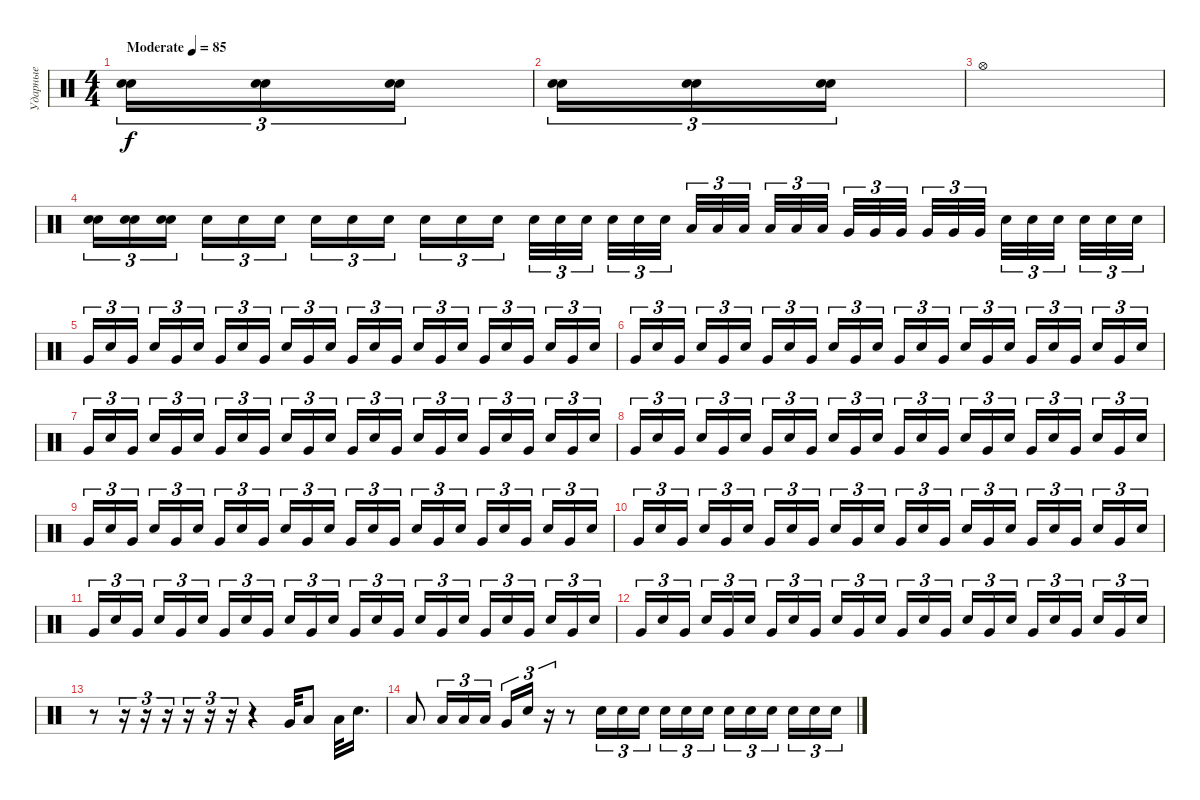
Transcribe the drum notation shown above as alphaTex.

\track ("Ударные" "Ударные") {instrument percussion}
\staff {score}
\articulation defaults
\ts (4 4)
\tempo (85 "Moderate")
\clef neutral
\ks c
("Electric Snare (hit)" "Snare (hit) 2").16{tu (3 2) dy f} ("Electric Snare (hit)" "Snare (hit) 2").16{tu (3 2)} ("Electric Snare (hit)" "Snare (hit) 2").16{tu (3 2)} |
("Electric Snare (hit)" "Snare (hit) 2").16{tu (3 2)} ("Electric Snare (hit)" "Snare (hit) 2").16{tu (3 2)} ("Electric Snare (hit)" "Snare (hit) 2").16{tu (3 2)} |
"Hi-Hat (open)".1 |
("Electric Snare (hit)" "Snare (hit) 2").16{tu (3 2)} ("Electric Snare (hit)" "Snare (hit) 2").16{tu (3 2)} ("Electric Snare (hit)" "Snare (hit) 2").16{tu (3 2) beam splitsecondary} "Snare (hit)".16{tu (3 2)} "Snare (hit)".16{tu (3 2)} "Snare (hit)".16{tu (3 2)} "Snare (hit)".16{tu (3 2)} "Snare (hit)".16{tu (3 2)} "Snare (hit)".16{tu (3 2) beam splitsecondary} "Snare (hit)".16{tu (3 2)} "Snare (hit)".16{tu (3 2)} "Snare (hit)".16{tu (3 2)} "Electric Snare (hit)".32{tu (3 2)} "Electric Snare (hit)".32{tu (3 2)} "Electric Snare (hit)".32{tu (3 2) beam splitsecondary} "Electric Snare (hit)".32{tu (3 2)} "Electric Snare (hit)".32{tu (3 2)} "Electric Snare (hit)".32{tu (3 2) beam splitsecondary} "Low Tom (hit)".32{tu (3 2)} "Low Tom (hit)".32{tu (3 2)} "Low Tom (hit)".32{tu (3 2) beam splitsecondary} "Low Tom (hit)".32{tu (3 2)} "Low Tom (hit)".32{tu (3 2)} "Low Tom (hit)".32{tu (3 2)} "Very Low Tom (hit)".32{tu (3 2)} "Very Low Tom (hit)".32{tu (3 2)} "Very Low Tom (hit)".32{tu (3 2) beam splitsecondary} "Very Low Tom (hit)".32{tu (3 2)} "Very Low Tom (hit)".32{tu (3 2)} "Very Low Tom (hit)".32{tu (3 2) beam splitsecondary} "Electric Snare (hit)".32{tu (3 2)} "Electric Snare (hit)".32{tu (3 2)} "Electric Snare (hit)".32{tu (3 2) beam splitsecondary} "Electric Snare (hit)".32{tu (3 2)} "Electric Snare (hit)".32{tu (3 2)} "Electric Snare (hit)".32{tu (3 2)} |
"Very Low Tom (hit)".16{tu (3 2)} "Electric Snare (hit)".16{tu (3 2)} "Very Low Tom (hit)".16{tu (3 2) beam splitsecondary} "Electric Snare (hit)".16{tu (3 2)} "Very Low Tom (hit)".16{tu (3 2)} "Electric Snare (hit)".16{tu (3 2)} "Very Low Tom (hit)".16{tu (3 2)} "Electric Snare (hit)".16{tu (3 2)} "Very Low Tom (hit)".16{tu (3 2) beam splitsecondary} "Electric Snare (hit)".16{tu (3 2)} "Very Low Tom (hit)".16{tu (3 2)} "Electric Snare (hit)".16{tu (3 2)} "Very Low Tom (hit)".16{tu (3 2)} "Electric Snare (hit)".16{tu (3 2)} "Very Low Tom (hit)".16{tu (3 2) beam splitsecondary} "Electric Snare (hit)".16{tu (3 2)} "Very Low Tom (hit)".16{tu (3 2)} "Electric Snare (hit)".16{tu (3 2)} "Very Low Tom (hit)".16{tu (3 2)} "Electric Snare (hit)".16{tu (3 2)} "Very Low Tom (hit)".16{tu (3 2) beam splitsecondary} "Electric Snare (hit)".16{tu (3 2)} "Very Low Tom (hit)".16{tu (3 2)} "Electric Snare (hit)".16{tu (3 2)} |
"Very Low Tom (hit)".16{tu (3 2)} "Electric Snare (hit)".16{tu (3 2)} "Very Low Tom (hit)".16{tu (3 2) beam splitsecondary} "Electric Snare (hit)".16{tu (3 2)} "Very Low Tom (hit)".16{tu (3 2)} "Electric Snare (hit)".16{tu (3 2)} "Very Low Tom (hit)".16{tu (3 2)} "Electric Snare (hit)".16{tu (3 2)} "Very Low Tom (hit)".16{tu (3 2) beam splitsecondary} "Electric Snare (hit)".16{tu (3 2)} "Very Low Tom (hit)".16{tu (3 2)} "Electric Snare (hit)".16{tu (3 2)} "Very Low Tom (hit)".16{tu (3 2)} "Electric Snare (hit)".16{tu (3 2)} "Very Low Tom (hit)".16{tu (3 2) beam splitsecondary} "Electric Snare (hit)".16{tu (3 2)} "Very Low Tom (hit)".16{tu (3 2)} "Electric Snare (hit)".16{tu (3 2)} "Very Low Tom (hit)".16{tu (3 2)} "Electric Snare (hit)".16{tu (3 2)} "Very Low Tom (hit)".16{tu (3 2) beam splitsecondary} "Electric Snare (hit)".16{tu (3 2)} "Very Low Tom (hit)".16{tu (3 2)} "Electric Snare (hit)".16{tu (3 2)} |
"Very Low Tom (hit)".16{tu (3 2)} "Electric Snare (hit)".16{tu (3 2)} "Very Low Tom (hit)".16{tu (3 2) beam splitsecondary} "Electric Snare (hit)".16{tu (3 2)} "Very Low Tom (hit)".16{tu (3 2)} "Electric Snare (hit)".16{tu (3 2)} "Very Low Tom (hit)".16{tu (3 2)} "Electric Snare (hit)".16{tu (3 2)} "Very Low Tom (hit)".16{tu (3 2) beam splitsecondary} "Electric Snare (hit)".16{tu (3 2)} "Very Low Tom (hit)".16{tu (3 2)} "Electric Snare (hit)".16{tu (3 2)} "Very Low Tom (hit)".16{tu (3 2)} "Electric Snare (hit)".16{tu (3 2)} "Very Low Tom (hit)".16{tu (3 2) beam splitsecondary} "Electric Snare (hit)".16{tu (3 2)} "Very Low Tom (hit)".16{tu (3 2)} "Electric Snare (hit)".16{tu (3 2)} "Very Low Tom (hit)".16{tu (3 2)} "Electric Snare (hit)".16{tu (3 2)} "Very Low Tom (hit)".16{tu (3 2) beam splitsecondary} "Electric Snare (hit)".16{tu (3 2)} "Very Low Tom (hit)".16{tu (3 2)} "Electric Snare (hit)".16{tu (3 2)} |
"Very Low Tom (hit)".16{tu (3 2)} "Electric Snare (hit)".16{tu (3 2)} "Very Low Tom (hit)".16{tu (3 2) beam splitsecondary} "Electric Snare (hit)".16{tu (3 2)} "Very Low Tom (hit)".16{tu (3 2)} "Electric Snare (hit)".16{tu (3 2)} "Very Low Tom (hit)".16{tu (3 2)} "Electric Snare (hit)".16{tu (3 2)} "Very Low Tom (hit)".16{tu (3 2) beam splitsecondary} "Electric Snare (hit)".16{tu (3 2)} "Very Low Tom (hit)".16{tu (3 2)} "Electric Snare (hit)".16{tu (3 2)} "Very Low Tom (hit)".16{tu (3 2)} "Electric Snare (hit)".16{tu (3 2)} "Very Low Tom (hit)".16{tu (3 2) beam splitsecondary} "Electric Snare (hit)".16{tu (3 2)} "Very Low Tom (hit)".16{tu (3 2)} "Electric Snare (hit)".16{tu (3 2)} "Very Low Tom (hit)".16{tu (3 2)} "Electric Snare (hit)".16{tu (3 2)} "Very Low Tom (hit)".16{tu (3 2) beam splitsecondary} "Electric Snare (hit)".16{tu (3 2)} "Very Low Tom (hit)".16{tu (3 2)} "Electric Snare (hit)".16{tu (3 2)} |
"Very Low Tom (hit)".16{tu (3 2)} "Electric Snare (hit)".16{tu (3 2)} "Very Low Tom (hit)".16{tu (3 2) beam splitsecondary} "Electric Snare (hit)".16{tu (3 2)} "Very Low Tom (hit)".16{tu (3 2)} "Electric Snare (hit)".16{tu (3 2)} "Very Low Tom (hit)".16{tu (3 2)} "Electric Snare (hit)".16{tu (3 2)} "Very Low Tom (hit)".16{tu (3 2) beam splitsecondary} "Electric Snare (hit)".16{tu (3 2)} "Very Low Tom (hit)".16{tu (3 2)} "Electric Snare (hit)".16{tu (3 2)} "Very Low Tom (hit)".16{tu (3 2)} "Electric Snare (hit)".16{tu (3 2)} "Very Low Tom (hit)".16{tu (3 2) beam splitsecondary} "Electric Snare (hit)".16{tu (3 2)} "Very Low Tom (hit)".16{tu (3 2)} "Electric Snare (hit)".16{tu (3 2)} "Very Low Tom (hit)".16{tu (3 2)} "Electric Snare (hit)".16{tu (3 2)} "Very Low Tom (hit)".16{tu (3 2) beam splitsecondary} "Electric Snare (hit)".16{tu (3 2)} "Very Low Tom (hit)".16{tu (3 2)} "Electric Snare (hit)".16{tu (3 2)} |
"Very Low Tom (hit)".16{tu (3 2)} "Electric Snare (hit)".16{tu (3 2)} "Very Low Tom (hit)".16{tu (3 2) beam splitsecondary} "Electric Snare (hit)".16{tu (3 2)} "Very Low Tom (hit)".16{tu (3 2)} "Electric Snare (hit)".16{tu (3 2)} "Very Low Tom (hit)".16{tu (3 2)} "Electric Snare (hit)".16{tu (3 2)} "Very Low Tom (hit)".16{tu (3 2) beam splitsecondary} "Electric Snare (hit)".16{tu (3 2)} "Very Low Tom (hit)".16{tu (3 2)} "Electric Snare (hit)".16{tu (3 2)} "Very Low Tom (hit)".16{tu (3 2)} "Electric Snare (hit)".16{tu (3 2)} "Very Low Tom (hit)".16{tu (3 2) beam splitsecondary} "Electric Snare (hit)".16{tu (3 2)} "Very Low Tom (hit)".16{tu (3 2)} "Electric Snare (hit)".16{tu (3 2)} "Very Low Tom (hit)".16{tu (3 2)} "Electric Snare (hit)".16{tu (3 2)} "Very Low Tom (hit)".16{tu (3 2) beam splitsecondary} "Electric Snare (hit)".16{tu (3 2)} "Very Low Tom (hit)".16{tu (3 2)} "Electric Snare (hit)".16{tu (3 2)} |
"Very Low Tom (hit)".16{tu (3 2)} "Electric Snare (hit)".16{tu (3 2)} "Very Low Tom (hit)".16{tu (3 2) beam splitsecondary} "Electric Snare (hit)".16{tu (3 2)} "Very Low Tom (hit)".16{tu (3 2)} "Electric Snare (hit)".16{tu (3 2)} "Very Low Tom (hit)".16{tu (3 2)} "Electric Snare (hit)".16{tu (3 2)} "Very Low Tom (hit)".16{tu (3 2) beam splitsecondary} "Electric Snare (hit)".16{tu (3 2)} "Very Low Tom (hit)".16{tu (3 2)} "Electric Snare (hit)".16{tu (3 2)} "Very Low Tom (hit)".16{tu (3 2)} "Electric Snare (hit)".16{tu (3 2)} "Very Low Tom (hit)".16{tu (3 2) beam splitsecondary} "Electric Snare (hit)".16{tu (3 2)} "Very Low Tom (hit)".16{tu (3 2)} "Electric Snare (hit)".16{tu (3 2)} "Very Low Tom (hit)".16{tu (3 2)} "Electric Snare (hit)".16{tu (3 2)} "Very Low Tom (hit)".16{tu (3 2) beam splitsecondary} "Electric Snare (hit)".16{tu (3 2)} "Very Low Tom (hit)".16{tu (3 2)} "Electric Snare (hit)".16{tu (3 2)} |
"Very Low Tom (hit)".16{tu (3 2)} "Electric Snare (hit)".16{tu (3 2)} "Very Low Tom (hit)".16{tu (3 2) beam splitsecondary} "Electric Snare (hit)".16{tu (3 2)} "Very Low Tom (hit)".16{tu (3 2)} "Electric Snare (hit)".16{tu (3 2)} "Very Low Tom (hit)".16{tu (3 2)} "Electric Snare (hit)".16{tu (3 2)} "Very Low Tom (hit)".16{tu (3 2) beam splitsecondary} "Electric Snare (hit)".16{tu (3 2)} "Very Low Tom (hit)".16{tu (3 2)} "Electric Snare (hit)".16{tu (3 2)} "Very Low Tom (hit)".16{tu (3 2)} "Electric Snare (hit)".16{tu (3 2)} "Very Low Tom (hit)".16{tu (3 2) beam splitsecondary} "Electric Snare (hit)".16{tu (3 2)} "Very Low Tom (hit)".16{tu (3 2)} "Electric Snare (hit)".16{tu (3 2)} "Very Low Tom (hit)".16{tu (3 2)} "Electric Snare (hit)".16{tu (3 2)} "Very Low Tom (hit)".16{tu (3 2) beam splitsecondary} "Electric Snare (hit)".16{tu (3 2)} "Very Low Tom (hit)".16{tu (3 2)} "Electric Snare (hit)".16{tu (3 2)} |
r.8 r.16{tu (3 2)} r.16{tu (3 2)} r.16{tu (3 2)} r.16{tu (3 2)} r.16{tu (3 2)} r.16{tu (3 2)} r.4 "Very Low Tom (hit)".32 "Low Tom (hit)".8 "Low Tom (hit)".32 "Electric Snare (hit)".16{d} |
"Low Tom (hit)".8 "Low Tom (hit)".16{tu (3 2)} "Low Tom (hit)".16{tu (3 2)} "Low Tom (hit)".16{tu (3 2)} "Very Low Tom (hit)".16{tu (3 2)} "Electric Snare (hit)".16{tu (3 2)} r.16{tu (3 2)} r.8 "Electric Snare (hit)".16{tu (3 2)} "Electric Snare (hit)".16{tu (3 2)} "Electric Snare (hit)".16{tu (3 2) beam splitsecondary} "Electric Snare (hit)".16{tu (3 2)} "Electric Snare (hit)".16{tu (3 2)} "Electric Snare (hit)".16{tu (3 2)} "Electric Snare (hit)".16{tu (3 2)} "Electric Snare (hit)".16{tu (3 2)} "Electric Snare (hit)".16{tu (3 2) beam splitsecondary} "Electric Snare (hit)".16{tu (3 2)} "Electric Snare (hit)".16{tu (3 2)} "Electric Snare (hit)".16{tu (3 2)}
